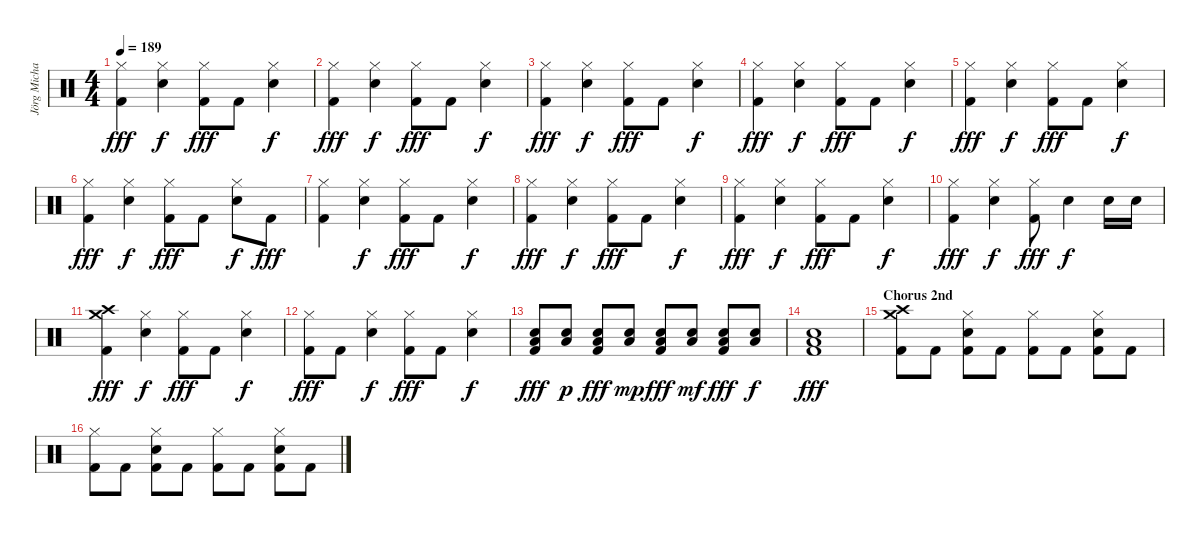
\track ("Jörg Michael" "Jörg Micha") {instrument percussion}
\staff {score}
\articulation defaults
\ts (4 4)
\tempo 189
\clef neutral
\ks c
("Hi-Hat (closed)" "Kick (hit) 2").4{dy fff} ("Hi-Hat (closed)" "Electric Snare (hit)").4{dy f} ("Hi-Hat (closed)" "Kick (hit) 2").8{dy fff} "Kick (hit) 2".8 ("Hi-Hat (closed)" "Electric Snare (hit)").4{dy f} |
("Hi-Hat (closed)" "Kick (hit) 2").4{dy fff} ("Hi-Hat (closed)" "Electric Snare (hit)").4{dy f} ("Hi-Hat (closed)" "Kick (hit) 2").8{dy fff} "Kick (hit) 2".8 ("Hi-Hat (closed)" "Electric Snare (hit)").4{dy f} |
("Hi-Hat (closed)" "Kick (hit) 2").4{dy fff} ("Hi-Hat (closed)" "Electric Snare (hit)").4{dy f} ("Hi-Hat (closed)" "Kick (hit) 2").8{dy fff} "Kick (hit) 2".8 ("Hi-Hat (closed)" "Electric Snare (hit)").4{dy f} |
("Hi-Hat (closed)" "Kick (hit) 2").4{dy fff} ("Hi-Hat (closed)" "Electric Snare (hit)").4{dy f} ("Hi-Hat (closed)" "Kick (hit) 2").8{dy fff} "Kick (hit) 2".8 ("Hi-Hat (closed)" "Electric Snare (hit)").4{dy f} |
("Hi-Hat (closed)" "Kick (hit) 2").4{dy fff} ("Hi-Hat (closed)" "Electric Snare (hit)").4{dy f} ("Hi-Hat (closed)" "Kick (hit) 2").8{dy fff} "Kick (hit) 2".8 ("Hi-Hat (closed)" "Electric Snare (hit)").4{dy f} |
("Hi-Hat (closed)" "Kick (hit) 2").4{dy fff} ("Hi-Hat (closed)" "Electric Snare (hit)").4{dy f} ("Hi-Hat (closed)" "Kick (hit) 2").8{dy fff} "Kick (hit) 2".8 ("Hi-Hat (closed)" "Electric Snare (hit)").8{dy f} "Kick (hit) 2".8{dy fff} |
("Hi-Hat (closed)" "Kick (hit) 2").4 ("Hi-Hat (closed)" "Electric Snare (hit)").4{dy f} ("Hi-Hat (closed)" "Kick (hit) 2").8{dy fff} "Kick (hit) 2".8 ("Hi-Hat (closed)" "Electric Snare (hit)").4{dy f} |
("Hi-Hat (closed)" "Kick (hit) 2").4{dy fff} ("Hi-Hat (closed)" "Electric Snare (hit)").4{dy f} ("Hi-Hat (closed)" "Kick (hit) 2").8{dy fff} "Kick (hit) 2".8 ("Hi-Hat (closed)" "Electric Snare (hit)").4{dy f} |
("Hi-Hat (closed)" "Kick (hit) 2").4{dy fff} ("Hi-Hat (closed)" "Electric Snare (hit)").4{dy f} ("Hi-Hat (closed)" "Kick (hit) 2").8{dy fff} "Kick (hit) 2".8 ("Hi-Hat (closed)" "Electric Snare (hit)").4{dy f} |
("Hi-Hat (closed)" "Kick (hit) 2").4{dy fff} ("Hi-Hat (closed)" "Electric Snare (hit)").4{dy f} ("Hi-Hat (closed)" "Kick (hit) 2").8{dy fff} "Electric Snare (hit)".4{dy f} "Electric Snare (hit)".16 "Electric Snare (hit)".16 |
("Crash medium (hit)" "Crash high (hit)" "Kick (hit) 2").4{dy fff} ("Hi-Hat (closed)" "Electric Snare (hit)").4{dy f} ("Hi-Hat (closed)" "Kick (hit) 2").8{dy fff} "Kick (hit) 2".8 ("Hi-Hat (closed)" "Electric Snare (hit)").4{dy f} |
("Hi-Hat (closed)" "Kick (hit) 2").8{dy fff} "Kick (hit) 2".8 ("Hi-Hat (closed)" "Electric Snare (hit)").4{dy f} ("Hi-Hat (closed)" "Kick (hit) 2").8{dy fff} "Kick (hit) 2".8 ("Hi-Hat (closed)" "Electric Snare (hit)").4{dy f} |
("Electric Snare (hit)" "Low Floor Tom (hit)" "Kick (hit) 2").8{dy fff} ("Electric Snare (hit)" "Low Floor Tom (hit)").8{dy p} ("Electric Snare (hit)" "Low Floor Tom (hit)" "Kick (hit) 2").8{dy fff} ("Electric Snare (hit)" "Low Floor Tom (hit)").8{dy mp} ("Electric Snare (hit)" "Low Floor Tom (hit)" "Kick (hit) 2").8{dy fff} ("Electric Snare (hit)" "Low Floor Tom (hit)").8{dy mf} ("Electric Snare (hit)" "Low Floor Tom (hit)" "Kick (hit) 2").8{dy fff} ("Electric Snare (hit)" "Low Floor Tom (hit)").8{dy f} |
("Electric Snare (hit)" "Low Floor Tom (hit)" "Kick (hit) 2").1{dy fff} |
\section ("" "Chorus 2nd")
("Crash high (hit)" "Crash medium (hit)" "Kick (hit) 2").8 "Kick (hit) 2".8 ("Hi-Hat (closed)" "Electric Snare (hit)" "Kick (hit) 2").8 "Kick (hit) 2".8 ("Hi-Hat (closed)" "Kick (hit) 2").8 "Kick (hit) 2".8 ("Hi-Hat (closed)" "Electric Snare (hit)" "Kick (hit) 2").8 "Kick (hit) 2".8 |
("Hi-Hat (closed)" "Kick (hit) 2").8 "Kick (hit) 2".8 ("Hi-Hat (closed)" "Electric Snare (hit)" "Kick (hit) 2").8 "Kick (hit) 2".8 ("Hi-Hat (closed)" "Kick (hit) 2").8 "Kick (hit) 2".8 ("Hi-Hat (closed)" "Electric Snare (hit)" "Kick (hit) 2").8 "Kick (hit) 2".8
